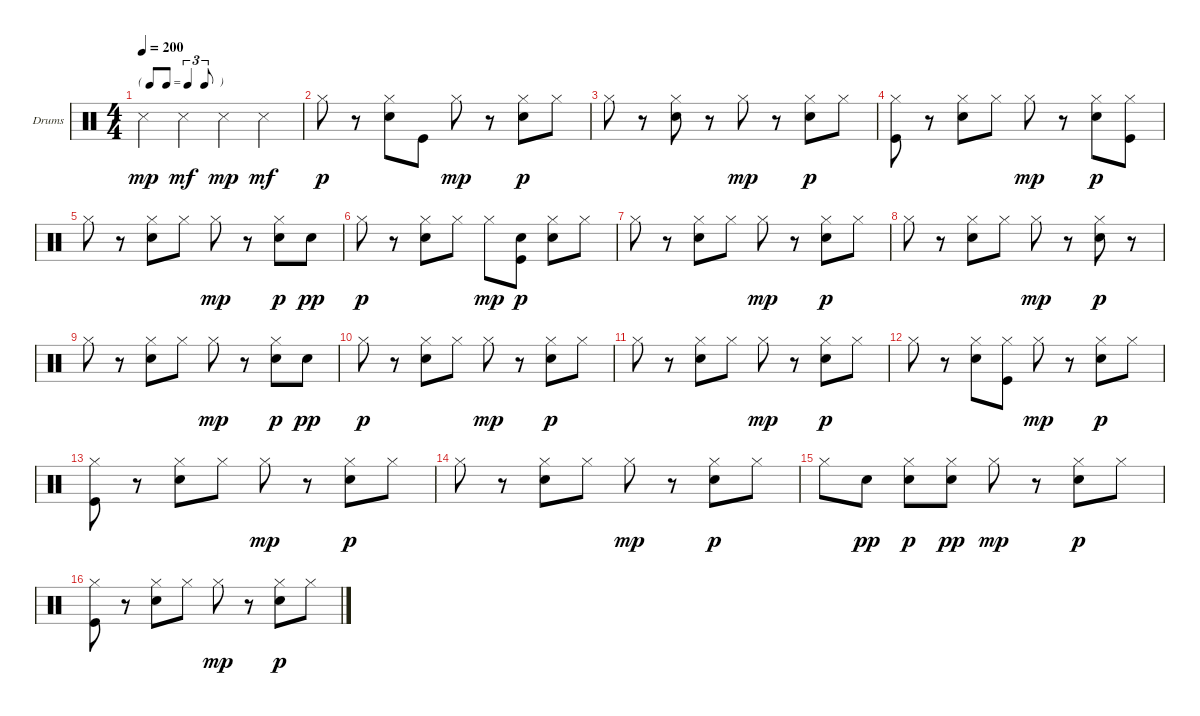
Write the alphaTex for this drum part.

\bracketExtendMode groupsimilarinstruments
\firstSystemTrackNameOrientation horizontal
\otherSystemsTrackNameOrientation horizontal
\track ("Drumkit" "Drums") {instrument percussion}
\staff {score}
\articulation defaults
\ts (4 4)
\tf triplet8th
\tempo 200
\clef neutral
\ks c "Snare (side stick) 3".4{dy mp} "Snare (side stick) 3".4{dy mf} "Snare (side stick) 3".4{dy mp} "Snare (side stick) 3".4{dy mf}
|
"Hi-Hat (closed)".8{dy p} r.8 ("Snare (hit) 2" "Hi-Hat (closed)").8 "Kick (hit)".8 "Hi-Hat (closed)".8{dy mp} r.8 ("Snare (hit) 2" "Hi-Hat (closed)").8{dy p} "Hi-Hat (closed)".8 |
"Hi-Hat (closed)".8 r.8 ("Snare (hit) 2" "Hi-Hat (closed)").8 r.8 "Hi-Hat (closed)".8{dy mp} r.8 ("Snare (hit) 2" "Hi-Hat (closed)").8{dy p} "Hi-Hat (closed)".8 |
("Kick (hit)" "Hi-Hat (closed)").8 r.8 ("Snare (hit) 2" "Hi-Hat (closed)").8 "Hi-Hat (closed)".8 "Hi-Hat (closed)".8{dy mp} r.8 ("Snare (hit) 2" "Hi-Hat (closed)").8{dy p} ("Kick (hit)" "Hi-Hat (closed)").8 |
"Hi-Hat (closed)".8 r.8 ("Snare (hit) 2" "Hi-Hat (closed)").8 "Hi-Hat (closed)".8 "Hi-Hat (closed)".8{dy mp} r.8 ("Snare (hit) 2" "Hi-Hat (closed)").8{dy p} "Snare (hit) 2".8{dy pp} |
"Hi-Hat (closed)".8{dy p} r.8 ("Snare (hit) 2" "Hi-Hat (closed)").8 "Hi-Hat (closed)".8 "Hi-Hat (closed)".8{dy mp} ("Kick (hit)" "Snare (hit) 2").8{dy p} ("Snare (hit) 2" "Hi-Hat (closed)").8 "Hi-Hat (closed)".8 |
"Hi-Hat (closed)".8 r.8 ("Snare (hit) 2" "Hi-Hat (closed)").8 "Hi-Hat (closed)".8 "Hi-Hat (closed)".8{dy mp} r.8 ("Snare (hit) 2" "Hi-Hat (closed)").8{dy p} "Hi-Hat (closed)".8 |
"Hi-Hat (closed)".8 r.8 ("Snare (hit) 2" "Hi-Hat (closed)").8 "Hi-Hat (closed)".8 "Hi-Hat (closed)".8{dy mp} r.8 ("Snare (hit) 2" "Hi-Hat (closed)").8{dy p} r.8 |
"Hi-Hat (closed)".8 r.8 ("Snare (hit) 2" "Hi-Hat (closed)").8 "Hi-Hat (closed)".8 "Hi-Hat (closed)".8{dy mp} r.8 ("Snare (hit) 2" "Hi-Hat (closed)").8{dy p} "Snare (hit) 2".8{dy pp} |
"Hi-Hat (closed)".8{dy p} r.8 ("Snare (hit) 2" "Hi-Hat (closed)").8 "Hi-Hat (closed)".8 "Hi-Hat (closed)".8{dy mp} r.8 ("Snare (hit) 2" "Hi-Hat (closed)").8{dy p} "Hi-Hat (closed)".8 |
"Hi-Hat (closed)".8 r.8 ("Snare (hit) 2" "Hi-Hat (closed)").8 "Hi-Hat (closed)".8 "Hi-Hat (closed)".8{dy mp} r.8 ("Snare (hit) 2" "Hi-Hat (closed)").8{dy p} "Hi-Hat (closed)".8 |
"Hi-Hat (closed)".8 r.8 ("Snare (hit) 2" "Hi-Hat (closed)").8 ("Kick (hit)" "Hi-Hat (closed)").8 "Hi-Hat (closed)".8{dy mp} r.8 ("Snare (hit) 2" "Hi-Hat (closed)").8{dy p} "Hi-Hat (closed)".8 |
("Kick (hit)" "Hi-Hat (closed)").8 r.8 ("Snare (hit) 2" "Hi-Hat (closed)").8 "Hi-Hat (closed)".8 "Hi-Hat (closed)".8{dy mp} r.8 ("Snare (hit) 2" "Hi-Hat (closed)").8{dy p} "Hi-Hat (closed)".8 |
"Hi-Hat (closed)".8 r.8 ("Snare (hit) 2" "Hi-Hat (closed)").8 "Hi-Hat (closed)".8 "Hi-Hat (closed)".8{dy mp} r.8 ("Snare (hit) 2" "Hi-Hat (closed)").8{dy p} "Hi-Hat (closed)".8 |
"Hi-Hat (closed)".8 "Snare (hit) 2".8{dy pp} ("Snare (hit) 2" "Hi-Hat (closed)").8{dy p} ("Snare (hit) 2" "Hi-Hat (closed)").8{dy pp} "Hi-Hat (closed)".8{dy mp} r.8 ("Snare (hit) 2" "Hi-Hat (closed)").8{dy p} "Hi-Hat (closed)".8 |
("Kick (hit)" "Hi-Hat (closed)").8 r.8 ("Snare (hit) 2" "Hi-Hat (closed)").8 "Hi-Hat (closed)".8 "Hi-Hat (closed)".8{dy mp} r.8 ("Snare (hit) 2" "Hi-Hat (closed)").8{dy p} "Hi-Hat (closed)".8
